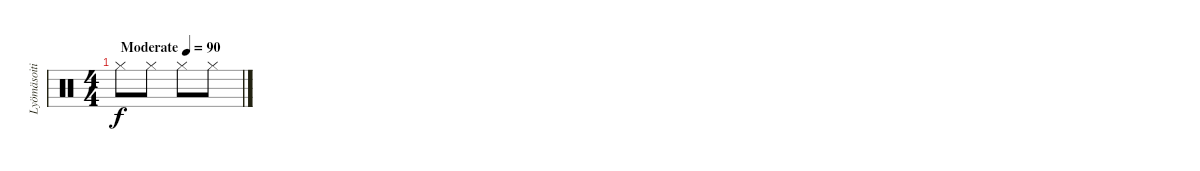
\track ("Lyömäsoitin" "Lyömäsoiti") {instrument percussion}
\staff {score}
\articulation defaults
\ts (4 4)
\tempo (90 "Moderate")
\clef neutral
\ks c "Hi-Hat (closed)".8{dy f} "Hi-Hat (closed)".8 "Hi-Hat (closed)".8 "Hi-Hat (closed)".8
